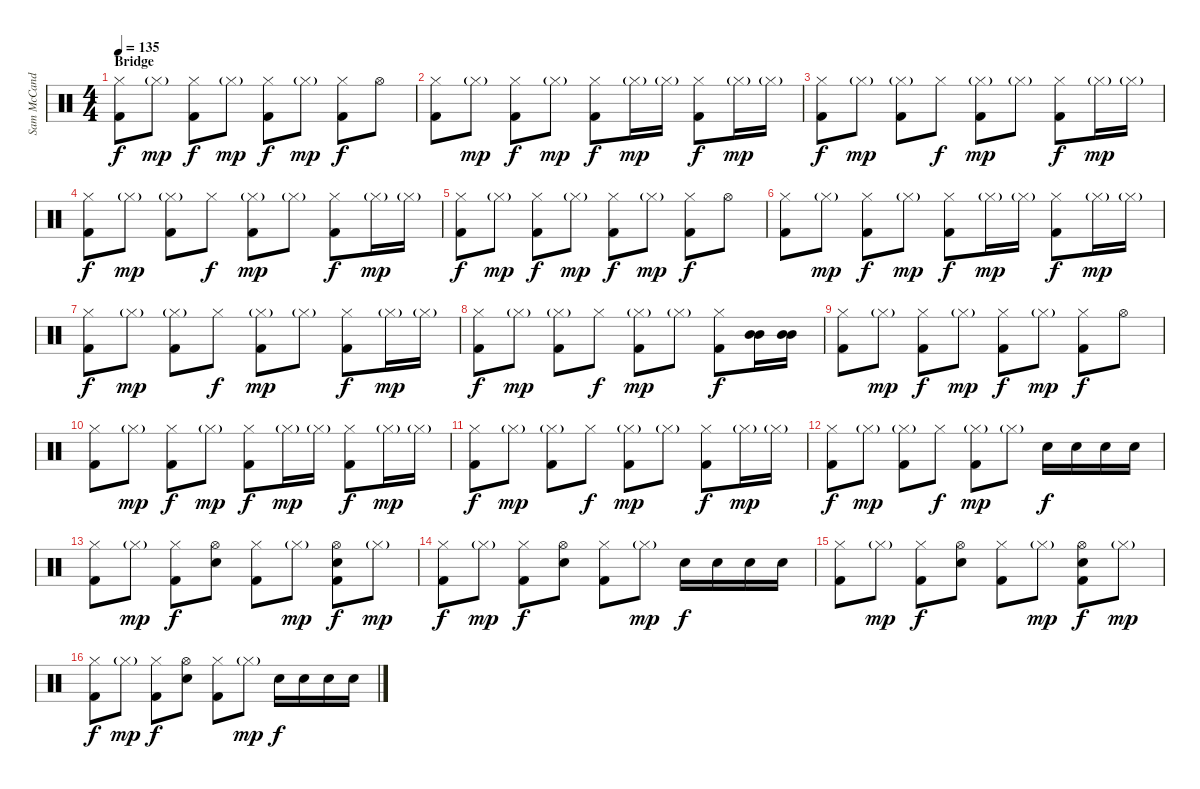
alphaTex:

\track ("Sam McCandless (Drums)" "Sam McCand") {instrument percussion}
\staff {score}
\articulation defaults
\ts (4 4)
\section ("" "Bridge")
\tempo 135
\clef neutral
\ks c
("Hi-Hat (closed)" "Kick (hit) 2").8{dy f} "Hi-Hat (closed)"{g}.8{dy mp} ("Hi-Hat (closed)" "Kick (hit) 2").8{dy f} "Hi-Hat (closed)"{g}.8{dy mp} ("Hi-Hat (closed)" "Kick (hit) 2").8{dy f} "Hi-Hat (closed)"{g}.8{dy mp} ("Hi-Hat (closed)" "Kick (hit) 2").8{dy f} "Hi-Hat (open)".8 |
("Hi-Hat (closed)" "Kick (hit) 2").8 "Hi-Hat (closed)"{g}.8{dy mp} ("Hi-Hat (closed)" "Kick (hit) 2").8{dy f} "Hi-Hat (closed)"{g}.8{dy mp} ("Hi-Hat (closed)" "Kick (hit) 2").8{dy f} "Hi-Hat (closed)"{g}.16{dy mp} "Hi-Hat (closed)"{g}.16 ("Hi-Hat (closed)" "Kick (hit) 2").8{dy f} "Hi-Hat (closed)"{g}.16{dy mp} "Hi-Hat (closed)"{g}.16 |
("Hi-Hat (closed)" "Kick (hit) 2").8{dy f} "Hi-Hat (closed)"{g}.8{dy mp} ("Hi-Hat (closed)"{g} "Kick (hit) 2").8 "Hi-Hat (closed)".8{dy f} ("Hi-Hat (closed)"{g} "Kick (hit) 2").8{dy mp} "Hi-Hat (closed)"{g}.8 ("Hi-Hat (closed)" "Kick (hit) 2").8{dy f} "Hi-Hat (closed)"{g}.16{dy mp} "Hi-Hat (closed)"{g}.16 |
("Hi-Hat (closed)" "Kick (hit) 2").8{dy f} "Hi-Hat (closed)"{g}.8{dy mp} ("Hi-Hat (closed)"{g} "Kick (hit) 2").8 "Hi-Hat (closed)".8{dy f} ("Hi-Hat (closed)"{g} "Kick (hit) 2").8{dy mp} "Hi-Hat (closed)"{g}.8 ("Hi-Hat (closed)" "Kick (hit) 2").8{dy f} "Hi-Hat (closed)"{g}.16{dy mp} "Hi-Hat (closed)"{g}.16 |
("Hi-Hat (closed)" "Kick (hit) 2").8{dy f} "Hi-Hat (closed)"{g}.8{dy mp} ("Hi-Hat (closed)" "Kick (hit) 2").8{dy f} "Hi-Hat (closed)"{g}.8{dy mp} ("Hi-Hat (closed)" "Kick (hit) 2").8{dy f} "Hi-Hat (closed)"{g}.8{dy mp} ("Hi-Hat (closed)" "Kick (hit) 2").8{dy f} "Hi-Hat (open)".8 |
("Hi-Hat (closed)" "Kick (hit) 2").8 "Hi-Hat (closed)"{g}.8{dy mp} ("Hi-Hat (closed)" "Kick (hit) 2").8{dy f} "Hi-Hat (closed)"{g}.8{dy mp} ("Hi-Hat (closed)" "Kick (hit) 2").8{dy f} "Hi-Hat (closed)"{g}.16{dy mp} "Hi-Hat (closed)"{g}.16 ("Hi-Hat (closed)" "Kick (hit) 2").8{dy f} "Hi-Hat (closed)"{g}.16{dy mp} "Hi-Hat (closed)"{g}.16 |
("Hi-Hat (closed)" "Kick (hit) 2").8{dy f} "Hi-Hat (closed)"{g}.8{dy mp} ("Hi-Hat (closed)"{g} "Kick (hit) 2").8 "Hi-Hat (closed)".8{dy f} ("Hi-Hat (closed)"{g} "Kick (hit) 2").8{dy mp} "Hi-Hat (closed)"{g}.8 ("Hi-Hat (closed)" "Kick (hit) 2").8{dy f} "Hi-Hat (closed)"{g}.16{dy mp} "Hi-Hat (closed)"{g}.16 |
("Hi-Hat (closed)" "Kick (hit) 2").8{dy f} "Hi-Hat (closed)"{g}.8{dy mp} ("Hi-Hat (closed)"{g} "Kick (hit) 2").8 "Hi-Hat (closed)".8{dy f} ("Hi-Hat (closed)"{g} "Kick (hit) 2").8{dy mp} "Hi-Hat (closed)"{g}.8 ("Hi-Hat (closed)" "Kick (hit) 2").8{dy f} ("Mid Tom (hit)" "Mid Tom (hit)").16 ("Mid Tom (hit)" "Mid Tom (hit)").16 |
("Hi-Hat (closed)" "Kick (hit) 2").8 "Hi-Hat (closed)"{g}.8{dy mp} ("Hi-Hat (closed)" "Kick (hit) 2").8{dy f} "Hi-Hat (closed)"{g}.8{dy mp} ("Hi-Hat (closed)" "Kick (hit) 2").8{dy f} "Hi-Hat (closed)"{g}.8{dy mp} ("Hi-Hat (closed)" "Kick (hit) 2").8{dy f} "Hi-Hat (open)".8 |
("Hi-Hat (closed)" "Kick (hit) 2").8 "Hi-Hat (closed)"{g}.8{dy mp} ("Hi-Hat (closed)" "Kick (hit) 2").8{dy f} "Hi-Hat (closed)"{g}.8{dy mp} ("Hi-Hat (closed)" "Kick (hit) 2").8{dy f} "Hi-Hat (closed)"{g}.16{dy mp} "Hi-Hat (closed)"{g}.16 ("Hi-Hat (closed)" "Kick (hit) 2").8{dy f} "Hi-Hat (closed)"{g}.16{dy mp} "Hi-Hat (closed)"{g}.16 |
("Hi-Hat (closed)" "Kick (hit) 2").8{dy f} "Hi-Hat (closed)"{g}.8{dy mp} ("Hi-Hat (closed)"{g} "Kick (hit) 2").8 "Hi-Hat (closed)".8{dy f} ("Hi-Hat (closed)"{g} "Kick (hit) 2").8{dy mp} "Hi-Hat (closed)"{g}.8 ("Hi-Hat (closed)" "Kick (hit) 2").8{dy f} "Hi-Hat (closed)"{g}.16{dy mp} "Hi-Hat (closed)"{g}.16 |
("Hi-Hat (closed)" "Kick (hit) 2").8{dy f} "Hi-Hat (closed)"{g}.8{dy mp} ("Hi-Hat (closed)"{g} "Kick (hit) 2").8 "Hi-Hat (closed)".8{dy f} ("Hi-Hat (closed)"{g} "Kick (hit) 2").8{dy mp} "Hi-Hat (closed)"{g}.8 "Electric Snare (hit)".16{dy f} "Electric Snare (hit)".16 "Electric Snare (hit)".16 "Electric Snare (hit)".16 |
("Hi-Hat (closed)" "Kick (hit) 2").8 "Hi-Hat (closed)"{g}.8{dy mp} ("Hi-Hat (closed)" "Kick (hit) 2").8{dy f} ("Hi-Hat (open)" "Electric Snare (hit)").8 ("Hi-Hat (closed)" "Kick (hit) 2").8 "Hi-Hat (closed)"{g}.8{dy mp} ("Hi-Hat (open)" "Electric Snare (hit)" "Kick (hit) 2").8{dy f} "Hi-Hat (closed)"{g}.8{dy mp} |
("Hi-Hat (closed)" "Kick (hit) 2").8{dy f} "Hi-Hat (closed)"{g}.8{dy mp} ("Hi-Hat (closed)" "Kick (hit) 2").8{dy f} ("Hi-Hat (open)" "Electric Snare (hit)").8 ("Hi-Hat (closed)" "Kick (hit) 2").8 "Hi-Hat (closed)"{g}.8{dy mp} "Electric Snare (hit)".16{dy f} "Electric Snare (hit)".16 "Electric Snare (hit)".16 "Electric Snare (hit)".16 |
("Hi-Hat (closed)" "Kick (hit) 2").8 "Hi-Hat (closed)"{g}.8{dy mp} ("Hi-Hat (closed)" "Kick (hit) 2").8{dy f} ("Hi-Hat (open)" "Electric Snare (hit)").8 ("Hi-Hat (closed)" "Kick (hit) 2").8 "Hi-Hat (closed)"{g}.8{dy mp} ("Hi-Hat (open)" "Electric Snare (hit)" "Kick (hit) 2").8{dy f} "Hi-Hat (closed)"{g}.8{dy mp} |
("Hi-Hat (closed)" "Kick (hit) 2").8{dy f} "Hi-Hat (closed)"{g}.8{dy mp} ("Hi-Hat (closed)" "Kick (hit) 2").8{dy f} ("Hi-Hat (open)" "Electric Snare (hit)").8 ("Hi-Hat (closed)" "Kick (hit) 2").8 "Hi-Hat (closed)"{g}.8{dy mp} "Electric Snare (hit)".16{dy f} "Electric Snare (hit)".16 "Electric Snare (hit)".16 "Electric Snare (hit)".16
